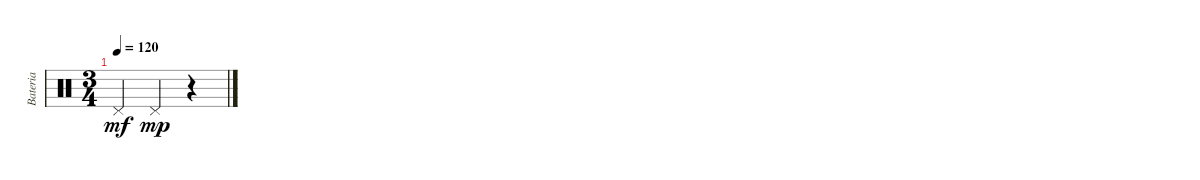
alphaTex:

\track ("Bateria" "Bateria") {instrument percussion}
\staff {score}
\articulation defaults
\ts (3 4)
\tempo 120
\clef neutral
\ks c "Pedal Hi-Hat (hit)".4{dy mf} "Pedal Hi-Hat (hit)".4{dy mp}
r.4
